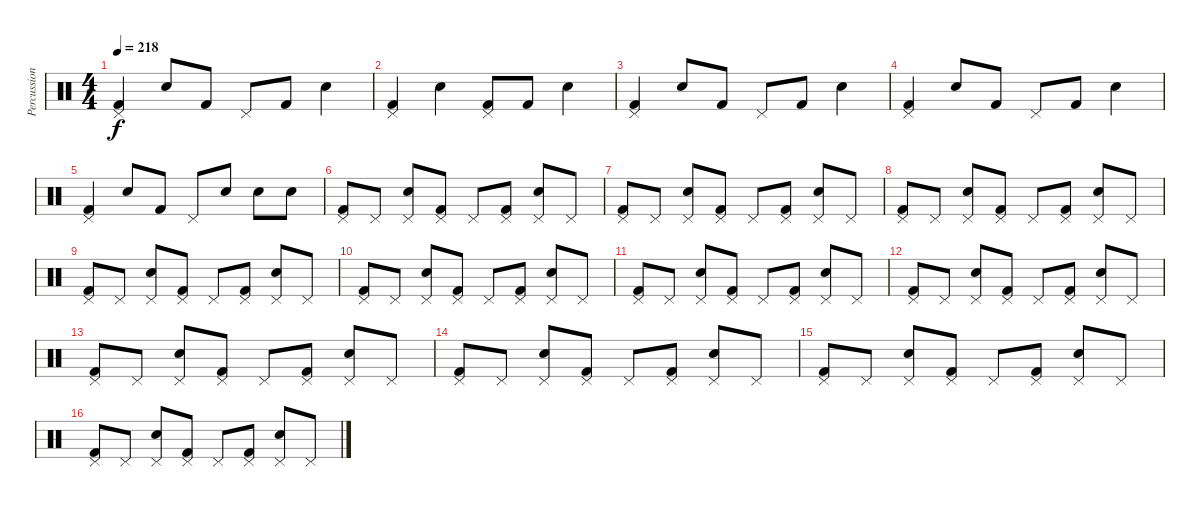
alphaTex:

\track ("Percussion" "Percussion") {instrument percussion}
\staff {score}
\articulation defaults
\ts (4 4)
\tempo 218
\clef neutral
\ks c
("Kick (hit) 2" "Pedal Hi-Hat (hit)").4{dy f} "Snare (hit) 2".8 "Kick (hit) 2".8 "Pedal Hi-Hat (hit)".8 "Kick (hit) 2".8 "Snare (hit) 2".4 |
("Kick (hit) 2" "Pedal Hi-Hat (hit)").4 "Snare (hit) 2".4 ("Kick (hit) 2" "Pedal Hi-Hat (hit)").8 "Kick (hit) 2".8 "Snare (hit) 2".4 |
("Kick (hit) 2" "Pedal Hi-Hat (hit)").4 "Snare (hit) 2".8 "Kick (hit) 2".8 "Pedal Hi-Hat (hit)".8 "Kick (hit) 2".8 "Snare (hit) 2".4 |
("Kick (hit) 2" "Pedal Hi-Hat (hit)").4 "Snare (hit) 2".8 "Kick (hit) 2".8 "Pedal Hi-Hat (hit)".8 "Kick (hit) 2".8 "Snare (hit) 2".4 |
("Kick (hit) 2" "Pedal Hi-Hat (hit)").4 "Snare (hit) 2".8 "Kick (hit) 2".8 "Pedal Hi-Hat (hit)".8 "Snare (hit) 2".8 "Snare (hit) 2".8 "Snare (hit) 2".8 |
("Kick (hit) 2" "Pedal Hi-Hat (hit)").8 "Pedal Hi-Hat (hit)".8 ("Snare (hit) 2" "Pedal Hi-Hat (hit)").8 ("Kick (hit) 2" "Pedal Hi-Hat (hit)").8 "Pedal Hi-Hat (hit)".8 ("Kick (hit) 2" "Pedal Hi-Hat (hit)").8 ("Snare (hit) 2" "Pedal Hi-Hat (hit)").8 "Pedal Hi-Hat (hit)".8 |
("Kick (hit) 2" "Pedal Hi-Hat (hit)").8 "Pedal Hi-Hat (hit)".8 ("Snare (hit) 2" "Pedal Hi-Hat (hit)").8 ("Kick (hit) 2" "Pedal Hi-Hat (hit)").8 "Pedal Hi-Hat (hit)".8 ("Kick (hit) 2" "Pedal Hi-Hat (hit)").8 ("Snare (hit) 2" "Pedal Hi-Hat (hit)").8 "Pedal Hi-Hat (hit)".8 |
("Kick (hit) 2" "Pedal Hi-Hat (hit)").8 "Pedal Hi-Hat (hit)".8 ("Snare (hit) 2" "Pedal Hi-Hat (hit)").8 ("Kick (hit) 2" "Pedal Hi-Hat (hit)").8 "Pedal Hi-Hat (hit)".8 ("Kick (hit) 2" "Pedal Hi-Hat (hit)").8 ("Snare (hit) 2" "Pedal Hi-Hat (hit)").8 "Pedal Hi-Hat (hit)".8 |
("Kick (hit) 2" "Pedal Hi-Hat (hit)").8 "Pedal Hi-Hat (hit)".8 ("Snare (hit) 2" "Pedal Hi-Hat (hit)").8 ("Kick (hit) 2" "Pedal Hi-Hat (hit)").8 "Pedal Hi-Hat (hit)".8 ("Kick (hit) 2" "Pedal Hi-Hat (hit)").8 ("Snare (hit) 2" "Pedal Hi-Hat (hit)").8 "Pedal Hi-Hat (hit)".8 |
("Kick (hit) 2" "Pedal Hi-Hat (hit)").8 "Pedal Hi-Hat (hit)".8 ("Snare (hit) 2" "Pedal Hi-Hat (hit)").8 ("Kick (hit) 2" "Pedal Hi-Hat (hit)").8 "Pedal Hi-Hat (hit)".8 ("Kick (hit) 2" "Pedal Hi-Hat (hit)").8 ("Snare (hit) 2" "Pedal Hi-Hat (hit)").8 "Pedal Hi-Hat (hit)".8 |
("Kick (hit) 2" "Pedal Hi-Hat (hit)").8 "Pedal Hi-Hat (hit)".8 ("Snare (hit) 2" "Pedal Hi-Hat (hit)").8 ("Kick (hit) 2" "Pedal Hi-Hat (hit)").8 "Pedal Hi-Hat (hit)".8 ("Kick (hit) 2" "Pedal Hi-Hat (hit)").8 ("Snare (hit) 2" "Pedal Hi-Hat (hit)").8 "Pedal Hi-Hat (hit)".8 |
("Kick (hit) 2" "Pedal Hi-Hat (hit)").8 "Pedal Hi-Hat (hit)".8 ("Snare (hit) 2" "Pedal Hi-Hat (hit)").8 ("Kick (hit) 2" "Pedal Hi-Hat (hit)").8 "Pedal Hi-Hat (hit)".8 ("Kick (hit) 2" "Pedal Hi-Hat (hit)").8 ("Snare (hit) 2" "Pedal Hi-Hat (hit)").8 "Pedal Hi-Hat (hit)".8 |
("Kick (hit) 2" "Pedal Hi-Hat (hit)").8 "Pedal Hi-Hat (hit)".8 ("Snare (hit) 2" "Pedal Hi-Hat (hit)").8 ("Kick (hit) 2" "Pedal Hi-Hat (hit)").8 "Pedal Hi-Hat (hit)".8 ("Kick (hit) 2" "Pedal Hi-Hat (hit)").8 ("Snare (hit) 2" "Pedal Hi-Hat (hit)").8 "Pedal Hi-Hat (hit)".8 |
("Kick (hit) 2" "Pedal Hi-Hat (hit)").8 "Pedal Hi-Hat (hit)".8 ("Snare (hit) 2" "Pedal Hi-Hat (hit)").8 ("Kick (hit) 2" "Pedal Hi-Hat (hit)").8 "Pedal Hi-Hat (hit)".8 ("Kick (hit) 2" "Pedal Hi-Hat (hit)").8 ("Snare (hit) 2" "Pedal Hi-Hat (hit)").8 "Pedal Hi-Hat (hit)".8 |
("Kick (hit) 2" "Pedal Hi-Hat (hit)").8 "Pedal Hi-Hat (hit)".8 ("Snare (hit) 2" "Pedal Hi-Hat (hit)").8 ("Kick (hit) 2" "Pedal Hi-Hat (hit)").8 "Pedal Hi-Hat (hit)".8 ("Kick (hit) 2" "Pedal Hi-Hat (hit)").8 ("Snare (hit) 2" "Pedal Hi-Hat (hit)").8 "Pedal Hi-Hat (hit)".8 |
("Kick (hit) 2" "Pedal Hi-Hat (hit)").8 "Pedal Hi-Hat (hit)".8 ("Snare (hit) 2" "Pedal Hi-Hat (hit)").8 ("Kick (hit) 2" "Pedal Hi-Hat (hit)").8 "Pedal Hi-Hat (hit)".8 ("Kick (hit) 2" "Pedal Hi-Hat (hit)").8 ("Snare (hit) 2" "Pedal Hi-Hat (hit)").8 "Pedal Hi-Hat (hit)".8
